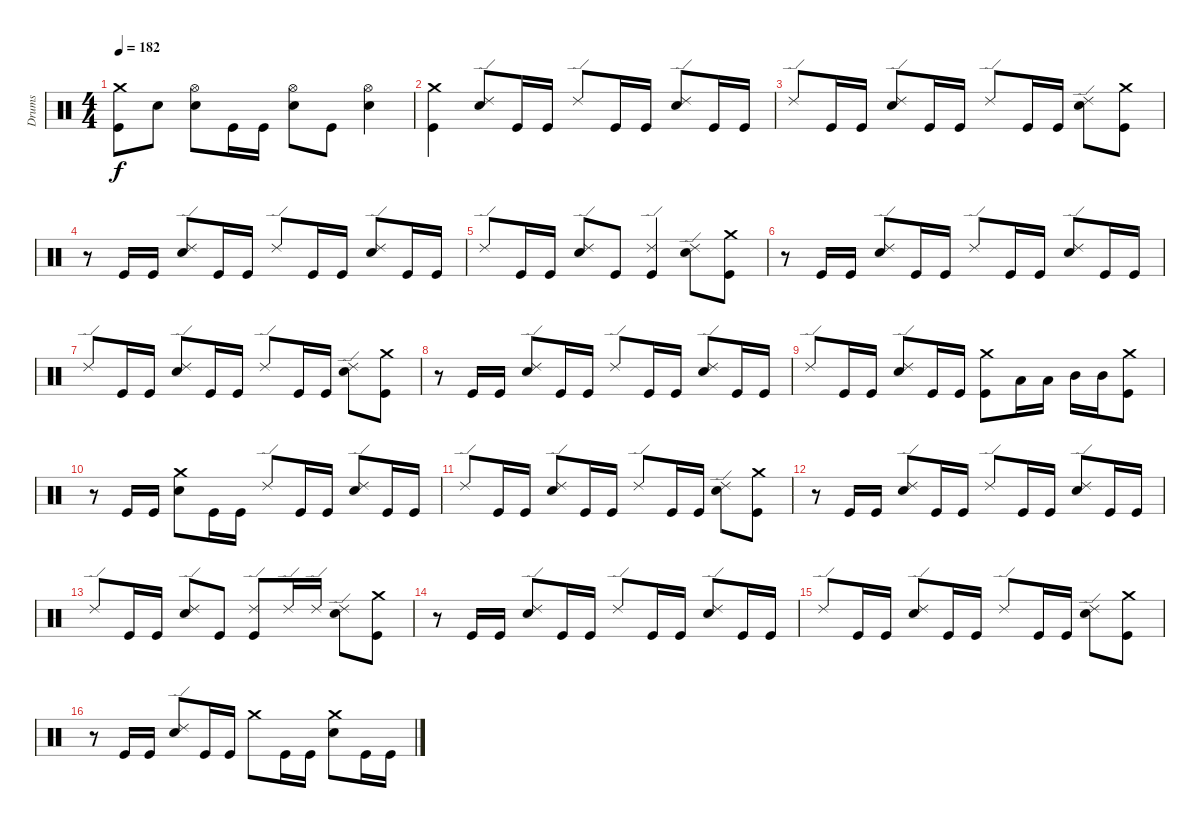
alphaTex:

\track ("Drums" "Drums") {instrument percussion}
\staff {score}
\articulation defaults
\ts (4 4)
\tempo 182
\clef neutral
\ks c
("Crash medium (hit)" "Kick (hit)").8{dy f} "Electric Snare (hit)".8 ("Hi-Hat (open)" "Electric Snare (hit)").8 "Kick (hit)".16 "Kick (hit)".16 ("Hi-Hat (open)" "Electric Snare (hit)").8 "Kick (hit)".8 ("Hi-Hat (open)" "Electric Snare (hit)").4 |
("Crash medium (hit)" "Kick (hit)").4 ("Ride (edge) 2" "Electric Snare (hit)").8 "Kick (hit)".16 "Kick (hit)".16 "Ride (edge) 2".8 "Kick (hit)".16 "Kick (hit)".16 ("Ride (edge) 2" "Electric Snare (hit)").8 "Kick (hit)".16 "Kick (hit)".16 |
"Ride (edge) 2".8 "Kick (hit)".16 "Kick (hit)".16 ("Ride (edge) 2" "Electric Snare (hit)").8 "Kick (hit)".16 "Kick (hit)".16 "Ride (edge) 2".8 "Kick (hit)".16 "Kick (hit)".16 ("Ride (edge) 2" "Electric Snare (hit)").8 ("Crash medium (hit)" "Kick (hit)").8 |
r.8 "Kick (hit)".16 "Kick (hit)".16 ("Ride (edge) 2" "Electric Snare (hit)").8 "Kick (hit)".16 "Kick (hit)".16 "Ride (edge) 2".8 "Kick (hit)".16 "Kick (hit)".16 ("Ride (edge) 2" "Electric Snare (hit)").8 "Kick (hit)".16 "Kick (hit)".16 |
"Ride (edge) 2".8 "Kick (hit)".16 "Kick (hit)".16 ("Ride (edge) 2" "Electric Snare (hit)").8 "Kick (hit)".8 ("Ride (edge) 2" "Kick (hit)").4 ("Ride (edge) 2" "Electric Snare (hit)").8 ("Crash medium (hit)" "Kick (hit)").8 |
r.8 "Kick (hit)".16 "Kick (hit)".16 ("Ride (edge) 2" "Electric Snare (hit)").8 "Kick (hit)".16 "Kick (hit)".16 "Ride (edge) 2".8 "Kick (hit)".16 "Kick (hit)".16 ("Ride (edge) 2" "Electric Snare (hit)").8 "Kick (hit)".16 "Kick (hit)".16 |
"Ride (edge) 2".8 "Kick (hit)".16 "Kick (hit)".16 ("Ride (edge) 2" "Electric Snare (hit)").8 "Kick (hit)".16 "Kick (hit)".16 "Ride (edge) 2".8 "Kick (hit)".16 "Kick (hit)".16 ("Ride (edge) 2" "Electric Snare (hit)").8 ("Crash medium (hit)" "Kick (hit)").8 |
r.8 "Kick (hit)".16 "Kick (hit)".16 ("Ride (edge) 2" "Electric Snare (hit)").8 "Kick (hit)".16 "Kick (hit)".16 "Ride (edge) 2".8 "Kick (hit)".16 "Kick (hit)".16 ("Ride (edge) 2" "Electric Snare (hit)").8 "Kick (hit)".16 "Kick (hit)".16 |
"Ride (edge) 2".8 "Kick (hit)".16 "Kick (hit)".16 ("Ride (edge) 2" "Electric Snare (hit)").8 "Kick (hit)".16 "Kick (hit)".16 ("Crash medium (hit)" "Kick (hit)").8 "Low Tom (hit)".16 "Low Tom (hit)".16 "Mid Tom (hit)".16 "Mid Tom (hit)".16 ("Crash medium (hit)" "Kick (hit)").8 |
r.8 "Kick (hit)".16 "Kick (hit)".16 ("Crash medium (hit)" "Electric Snare (hit)").8 "Kick (hit)".16 "Kick (hit)".16 "Ride (edge) 2".8 "Kick (hit)".16 "Kick (hit)".16 ("Ride (edge) 2" "Electric Snare (hit)").8 "Kick (hit)".16 "Kick (hit)".16 |
"Ride (edge) 2".8 "Kick (hit)".16 "Kick (hit)".16 ("Ride (edge) 2" "Electric Snare (hit)").8 "Kick (hit)".16 "Kick (hit)".16 "Ride (edge) 2".8 "Kick (hit)".16 "Kick (hit)".16 ("Ride (edge) 2" "Electric Snare (hit)").8 ("Crash medium (hit)" "Kick (hit)").8 |
r.8 "Kick (hit)".16 "Kick (hit)".16 ("Ride (edge) 2" "Electric Snare (hit)").8 "Kick (hit)".16 "Kick (hit)".16 "Ride (edge) 2".8 "Kick (hit)".16 "Kick (hit)".16 ("Ride (edge) 2" "Electric Snare (hit)").8 "Kick (hit)".16 "Kick (hit)".16 |
"Ride (edge) 2".8 "Kick (hit)".16 "Kick (hit)".16 ("Ride (edge) 2" "Electric Snare (hit)").8 "Kick (hit)".8 ("Ride (edge) 2" "Kick (hit)").8 "Ride (edge) 2".16 "Ride (edge) 2".16 ("Ride (edge) 2" "Electric Snare (hit)").8 ("Crash medium (hit)" "Kick (hit)").8 |
r.8 "Kick (hit)".16 "Kick (hit)".16 ("Ride (edge) 2" "Electric Snare (hit)").8 "Kick (hit)".16 "Kick (hit)".16 "Ride (edge) 2".8 "Kick (hit)".16 "Kick (hit)".16 ("Ride (edge) 2" "Electric Snare (hit)").8 "Kick (hit)".16 "Kick (hit)".16 |
"Ride (edge) 2".8 "Kick (hit)".16 "Kick (hit)".16 ("Ride (edge) 2" "Electric Snare (hit)").8 "Kick (hit)".16 "Kick (hit)".16 "Ride (edge) 2".8 "Kick (hit)".16 "Kick (hit)".16 ("Ride (edge) 2" "Electric Snare (hit)").8 ("Crash medium (hit)" "Kick (hit)").8 |
r.8 "Kick (hit)".16 "Kick (hit)".16 ("Ride (edge) 2" "Electric Snare (hit)").8 "Kick (hit)".16 "Kick (hit)".16 "Crash medium (hit)".8 "Kick (hit)".16 "Kick (hit)".16 ("Crash medium (hit)" "Electric Snare (hit)").8 "Kick (hit)".16 "Kick (hit)".16
